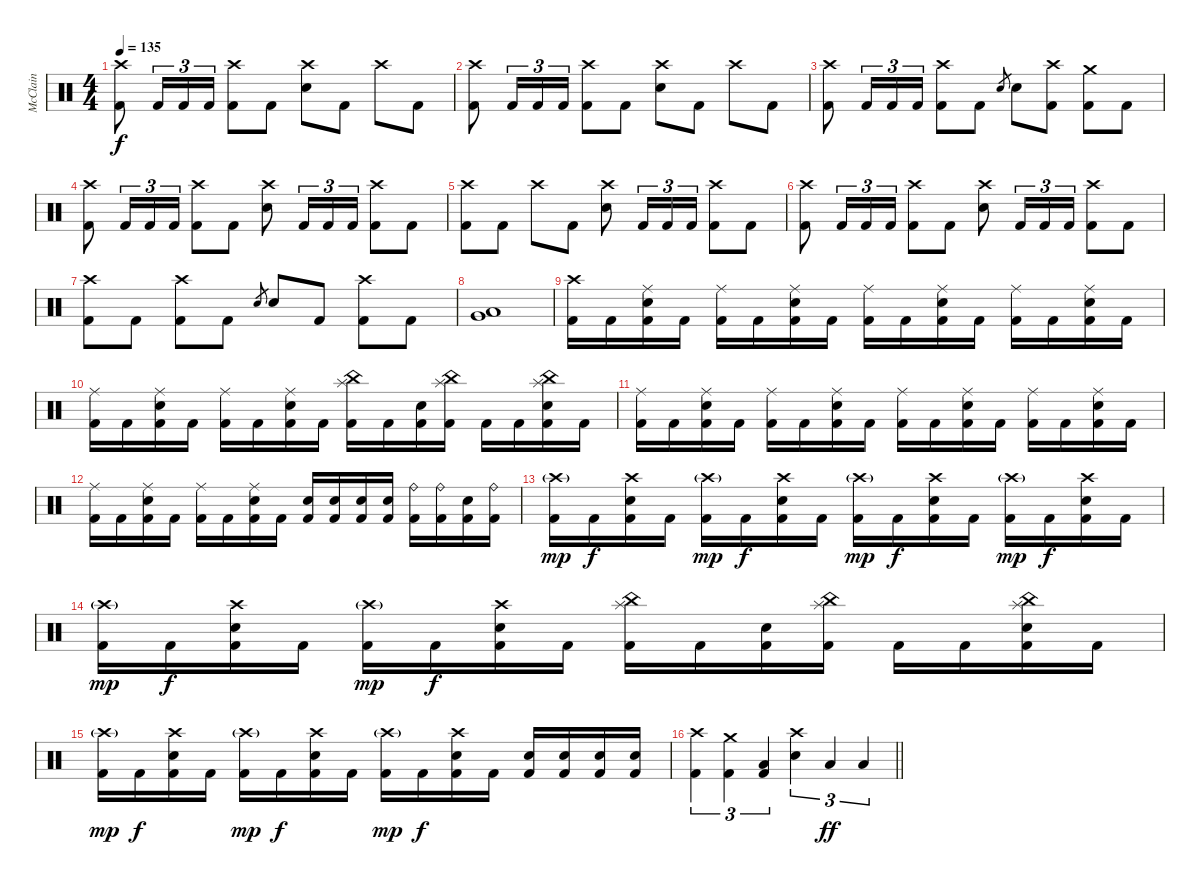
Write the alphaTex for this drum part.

\track ("McClain" "McClain") {instrument percussion}
\staff {score}
\articulation defaults
\ts (4 4)
\tempo 135
\clef neutral
\ks c
("Crash high (hit)" "Kick (hit) 2").8{dy f} "Kick (hit) 2".16{tu (3 2)} "Kick (hit) 2".16{tu (3 2)} "Kick (hit) 2".16{tu (3 2)} ("Crash high (hit)" "Kick (hit) 2").8 "Kick (hit) 2".8 ("Crash high (hit)" "Electric Snare (hit)").8 "Kick (hit) 2".8 "Crash high (hit)".8 "Kick (hit) 2".8 |
("Crash high (hit)" "Kick (hit) 2").8 "Kick (hit) 2".16{tu (3 2)} "Kick (hit) 2".16{tu (3 2)} "Kick (hit) 2".16{tu (3 2)} ("Crash high (hit)" "Kick (hit) 2").8 "Kick (hit) 2".8 ("Crash high (hit)" "Electric Snare (hit)").8 "Kick (hit) 2".8 "Crash high (hit)".8 "Kick (hit) 2".8 |
("Crash high (hit)" "Kick (hit) 2").8 "Kick (hit) 2".16{tu (3 2)} "Kick (hit) 2".16{tu (3 2)} "Kick (hit) 2".16{tu (3 2)} ("Crash high (hit)" "Kick (hit) 2").8 "Kick (hit) 2".8 "Electric Snare (hit)".8{gr} "Electric Snare (hit)".8 ("Crash high (hit)" "Kick (hit) 2").8 ("Crash medium (hit)" "Kick (hit) 2").8 "Kick (hit) 2".8 |
("Crash high (hit)" "Kick (hit) 2").8 "Kick (hit) 2".16{tu (3 2)} "Kick (hit) 2".16{tu (3 2)} "Kick (hit) 2".16{tu (3 2)} ("Crash high (hit)" "Kick (hit) 2").8 "Kick (hit) 2".8 ("Crash high (hit)" "Electric Snare (hit)").8 "Kick (hit) 2".16{tu (3 2)} "Kick (hit) 2".16{tu (3 2)} "Kick (hit) 2".16{tu (3 2)} ("Crash high (hit)" "Kick (hit) 2").8 "Kick (hit) 2".8 |
("Crash high (hit)" "Kick (hit) 2").8 "Kick (hit) 2".8 "Crash high (hit)".8 "Kick (hit) 2".8 ("Crash high (hit)" "Electric Snare (hit)").8 "Kick (hit) 2".16{tu (3 2)} "Kick (hit) 2".16{tu (3 2)} "Kick (hit) 2".16{tu (3 2)} ("Crash high (hit)" "Kick (hit) 2").8 "Kick (hit) 2".8 |
("Crash high (hit)" "Kick (hit) 2").8 "Kick (hit) 2".16{tu (3 2)} "Kick (hit) 2".16{tu (3 2)} "Kick (hit) 2".16{tu (3 2)} ("Crash high (hit)" "Kick (hit) 2").8 "Kick (hit) 2".8 ("Crash high (hit)" "Electric Snare (hit)").8 "Kick (hit) 2".16{tu (3 2)} "Kick (hit) 2".16{tu (3 2)} "Kick (hit) 2".16{tu (3 2)} ("Crash high (hit)" "Kick (hit) 2").8 "Kick (hit) 2".8 |
("Crash high (hit)" "Kick (hit) 2").8 "Kick (hit) 2".8 ("Crash high (hit)" "Kick (hit) 2").8 "Kick (hit) 2".8 "Electric Snare (hit)".8{gr} "Electric Snare (hit)".8 "Kick (hit) 2".8 ("Crash high (hit)" "Kick (hit) 2").8 "Kick (hit) 2".8 |
("Very Low Tom (hit)" "Low Floor Tom (hit)").1 |
("Crash high (hit)" "Kick (hit) 2").16 "Kick (hit) 2".16 ("Ride (middle)" "Electric Snare (hit)" "Kick (hit) 2").16 "Kick (hit) 2".16 ("Ride (middle)" "Kick (hit) 2").16 "Kick (hit) 2".16 ("Ride (middle)" "Electric Snare (hit)" "Kick (hit) 2").16 "Kick (hit) 2".16 ("Ride (middle)" "Kick (hit) 2").16 "Kick (hit) 2".16 ("Ride (middle)" "Electric Snare (hit)" "Kick (hit) 2").16 "Kick (hit) 2".16 ("Ride (middle)" "Kick (hit) 2").16 "Kick (hit) 2".16 ("Ride (middle)" "Electric Snare (hit)" "Kick (hit) 2").16 "Kick (hit) 2".16 |
("Ride (middle)" "Kick (hit) 2").16 "Kick (hit) 2".16 ("Ride (middle)" "Electric Snare (hit)" "Kick (hit) 2").16 "Kick (hit) 2".16 ("Ride (middle)" "Kick (hit) 2").16 "Kick (hit) 2".16 ("Ride (middle)" "Electric Snare (hit)" "Kick (hit) 2").16 "Kick (hit) 2".16 ("China (hit)" "Splash (hit)" "Kick (hit) 2").16 "Kick (hit) 2".16 ("Electric Snare (hit)" "Kick (hit) 2").16 ("China (hit)" "Splash (hit)" "Kick (hit) 2").16 "Kick (hit) 2".16 "Kick (hit) 2".16 ("China (hit)" "Splash (hit)" "Electric Snare (hit)" "Kick (hit) 2").16 "Kick (hit) 2".16 |
("Ride (middle)" "Kick (hit) 2").16 "Kick (hit) 2".16 ("Ride (middle)" "Electric Snare (hit)" "Kick (hit) 2").16 "Kick (hit) 2".16 ("Ride (middle)" "Kick (hit) 2").16 "Kick (hit) 2".16 ("Ride (middle)" "Electric Snare (hit)" "Kick (hit) 2").16 "Kick (hit) 2".16 ("Ride (middle)" "Kick (hit) 2").16 "Kick (hit) 2".16 ("Ride (middle)" "Electric Snare (hit)" "Kick (hit) 2").16 "Kick (hit) 2".16 ("Ride (middle)" "Kick (hit) 2").16 "Kick (hit) 2".16 ("Ride (middle)" "Electric Snare (hit)" "Kick (hit) 2").16 "Kick (hit) 2".16 |
("Ride (middle)" "Kick (hit) 2").16 "Kick (hit) 2".16 ("Ride (middle)" "Electric Snare (hit)" "Kick (hit) 2").16 "Kick (hit) 2".16 ("Ride (middle)" "Kick (hit) 2").16 "Kick (hit) 2".16 ("Ride (middle)" "Electric Snare (hit)" "Kick (hit) 2").16 "Kick (hit) 2".16 ("Electric Snare (hit)" "Kick (hit) 2").16 ("Electric Snare (hit)" "Kick (hit) 2").16 ("Electric Snare (hit)" "Kick (hit) 2").16 ("Electric Snare (hit)" "Kick (hit) 2").16 ("Ride (bell)" "Kick (hit) 2").16 ("Ride (bell)" "Kick (hit) 2").16 ("Electric Snare (hit)" "Kick (hit) 2").16 ("Ride (bell)" "Kick (hit) 2").16 |
("Crash high (hit)"{g} "Kick (hit) 2").16{dy mp} "Kick (hit) 2".16{dy f} ("Crash high (hit)" "Electric Snare (hit)" "Kick (hit) 2").16 "Kick (hit) 2".16 ("Crash high (hit)"{g} "Kick (hit) 2").16{dy mp} "Kick (hit) 2".16{dy f} ("Crash high (hit)" "Electric Snare (hit)" "Kick (hit) 2").16 "Kick (hit) 2".16 ("Crash high (hit)"{g} "Kick (hit) 2").16{dy mp} "Kick (hit) 2".16{dy f} ("Crash high (hit)" "Electric Snare (hit)" "Kick (hit) 2").16 "Kick (hit) 2".16 ("Crash high (hit)"{g} "Kick (hit) 2").16{dy mp} "Kick (hit) 2".16{dy f} ("Crash high (hit)" "Electric Snare (hit)" "Kick (hit) 2").16 "Kick (hit) 2".16 |
("Crash high (hit)"{g} "Kick (hit) 2").16{dy mp} "Kick (hit) 2".16{dy f} ("Crash high (hit)" "Electric Snare (hit)" "Kick (hit) 2").16 "Kick (hit) 2".16 ("Crash high (hit)"{g} "Kick (hit) 2").16{dy mp} "Kick (hit) 2".16{dy f} ("Crash high (hit)" "Electric Snare (hit)" "Kick (hit) 2").16 "Kick (hit) 2".16 ("China (hit)" "Splash (hit)" "Kick (hit) 2").16 "Kick (hit) 2".16 ("Electric Snare (hit)" "Kick (hit) 2").16 ("China (hit)" "Splash (hit)" "Kick (hit) 2").16 "Kick (hit) 2".16 "Kick (hit) 2".16 ("China (hit)" "Splash (hit)" "Electric Snare (hit)" "Kick (hit) 2").16 "Kick (hit) 2".16 |
("Crash high (hit)"{g} "Kick (hit) 2").16{dy mp} "Kick (hit) 2".16{dy f} ("Crash high (hit)" "Electric Snare (hit)" "Kick (hit) 2").16 "Kick (hit) 2".16 ("Crash high (hit)"{g} "Kick (hit) 2").16{dy mp} "Kick (hit) 2".16{dy f} ("Crash high (hit)" "Electric Snare (hit)" "Kick (hit) 2").16 "Kick (hit) 2".16 ("Crash high (hit)"{g} "Kick (hit) 2").16{dy mp} "Kick (hit) 2".16{dy f} ("Crash high (hit)" "Electric Snare (hit)" "Kick (hit) 2").16 "Kick (hit) 2".16 ("Electric Snare (hit)" "Kick (hit) 2").16 ("Electric Snare (hit)" "Kick (hit) 2").16 ("Electric Snare (hit)" "Kick (hit) 2").16 ("Electric Snare (hit)" "Kick (hit) 2").16 |
\barLineRight lightlight
("Crash high (hit)" "Kick (hit) 2").4{tu (3 2)} ("Crash medium (hit)" "Kick (hit) 2").4{tu (3 2)} ("Low Floor Tom (hit)" "Kick (hit) 2").4{tu (3 2)} ("Crash high (hit)" "Electric Snare (hit)").4{tu (3 2)} "Low Tom (hit)".4{tu (3 2) dy ff} "Low Floor Tom (hit)".4{tu (3 2)}
